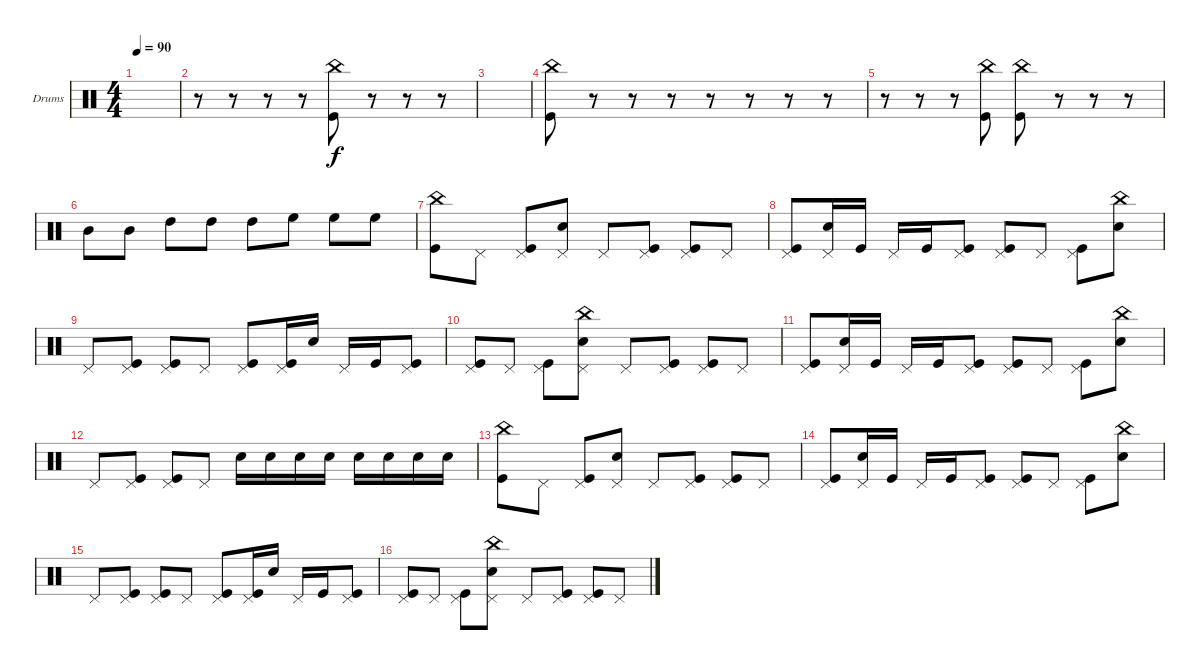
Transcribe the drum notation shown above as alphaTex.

\defaultSystemsLayout 4
\bracketExtendMode groupsimilarinstruments
\firstSystemTrackNameOrientation horizontal
\otherSystemsTrackNameOrientation horizontal
\track ("Drumkit" "Drums") {instrument percussion}
\staff {score}
\articulation defaults
\ts (4 4)
\tempo 90
\clef neutral
\ks c
|
r.8 r.8 r.8 r.8 ("Kick (hit)" "China (hit)").8 r.8 r.8 r.8 |
|
("Kick (hit)" "China (hit)").8 r.8 r.8 r.8 r.8 r.8 r.8 r.8 |
r.8 r.8 r.8 ("Kick (hit)" "China (hit)").8 ("China (hit)" "Kick (hit)").8 r.8 r.8 r.8 |
"Mid Tom (hit)".8 "Mid Tom (hit)".8 "High Tom (hit)".8 "High Tom (hit)".8 "High Tom (hit)".8 "High Floor Tom (hit)".8 "High Floor Tom (hit)".8 "High Floor Tom (hit)".8 |
("Kick (hit)" "China (hit)").8 "Pedal Hi-Hat (hit)".8 ("Pedal Hi-Hat (hit)" "Kick (hit)").8 ("Pedal Hi-Hat (hit)" "Snare (hit) 2").8 "Pedal Hi-Hat (hit)".8 ("Pedal Hi-Hat (hit)" "Kick (hit)").8 ("Pedal Hi-Hat (hit)" "Kick (hit)").8 "Pedal Hi-Hat (hit)".8 |
("Pedal Hi-Hat (hit)" "Kick (hit)").8 ("Pedal Hi-Hat (hit)" "Snare (hit) 2").16 "Kick (hit)".16 "Pedal Hi-Hat (hit)".16 "Kick (hit)".16 ("Pedal Hi-Hat (hit)" "Kick (hit)").8 ("Pedal Hi-Hat (hit)" "Kick (hit)").8 "Pedal Hi-Hat (hit)".8 ("Pedal Hi-Hat (hit)" "Kick (hit)").8 ("Snare (hit) 2" "China (hit)").8 |
"Pedal Hi-Hat (hit)".8 ("Pedal Hi-Hat (hit)" "Kick (hit)").8 ("Kick (hit)" "Pedal Hi-Hat (hit)").8 "Pedal Hi-Hat (hit)".8 ("Pedal Hi-Hat (hit)" "Kick (hit)").8 ("Kick (hit)" "Pedal Hi-Hat (hit)").16 "Snare (hit) 2".16 "Pedal Hi-Hat (hit)".16 "Kick (hit)".16 ("Pedal Hi-Hat (hit)" "Kick (hit)").8 |
("Kick (hit)" "Pedal Hi-Hat (hit)").8 "Pedal Hi-Hat (hit)".8 ("Pedal Hi-Hat (hit)" "Kick (hit)").8 ("Pedal Hi-Hat (hit)" "Snare (hit) 2" "China (hit)").8 "Pedal Hi-Hat (hit)".8 ("Pedal Hi-Hat (hit)" "Kick (hit)").8 ("Pedal Hi-Hat (hit)" "Kick (hit)").8 "Pedal Hi-Hat (hit)".8 |
("Pedal Hi-Hat (hit)" "Kick (hit)").8 ("Pedal Hi-Hat (hit)" "Snare (hit) 2").16 "Kick (hit)".16 "Pedal Hi-Hat (hit)".16 "Kick (hit)".16 ("Pedal Hi-Hat (hit)" "Kick (hit)").8 ("Pedal Hi-Hat (hit)" "Kick (hit)").8 "Pedal Hi-Hat (hit)".8 ("Pedal Hi-Hat (hit)" "Kick (hit)").8 ("Snare (hit) 2" "China (hit)").8 |
"Pedal Hi-Hat (hit)".8 ("Pedal Hi-Hat (hit)" "Kick (hit)").8 ("Kick (hit)" "Pedal Hi-Hat (hit)").8 "Pedal Hi-Hat (hit)".8 "Snare (hit) 2".16 "Snare (hit) 2".16 "Snare (hit) 2".16 "Snare (hit) 2".16 "Snare (hit) 2".16 "Snare (hit) 2".16 "Snare (hit) 2".16 "Snare (hit) 2".16 |
("Kick (hit)" "China (hit)").8 "Pedal Hi-Hat (hit)".8 ("Pedal Hi-Hat (hit)" "Kick (hit)").8 ("Pedal Hi-Hat (hit)" "Snare (hit) 2").8 "Pedal Hi-Hat (hit)".8 ("Pedal Hi-Hat (hit)" "Kick (hit)").8 ("Pedal Hi-Hat (hit)" "Kick (hit)").8 "Pedal Hi-Hat (hit)".8 |
("Pedal Hi-Hat (hit)" "Kick (hit)").8 ("Pedal Hi-Hat (hit)" "Snare (hit) 2").16 "Kick (hit)".16 "Pedal Hi-Hat (hit)".16 "Kick (hit)".16 ("Pedal Hi-Hat (hit)" "Kick (hit)").8 ("Pedal Hi-Hat (hit)" "Kick (hit)").8 "Pedal Hi-Hat (hit)".8 ("Pedal Hi-Hat (hit)" "Kick (hit)").8 ("Snare (hit) 2" "China (hit)").8 |
"Pedal Hi-Hat (hit)".8 ("Pedal Hi-Hat (hit)" "Kick (hit)").8 ("Kick (hit)" "Pedal Hi-Hat (hit)").8 "Pedal Hi-Hat (hit)".8 ("Pedal Hi-Hat (hit)" "Kick (hit)").8 ("Kick (hit)" "Pedal Hi-Hat (hit)").16 "Snare (hit) 2".16 "Pedal Hi-Hat (hit)".16 "Kick (hit)".16 ("Pedal Hi-Hat (hit)" "Kick (hit)").8 |
("Kick (hit)" "Pedal Hi-Hat (hit)").8 "Pedal Hi-Hat (hit)".8 ("Pedal Hi-Hat (hit)" "Kick (hit)").8 ("Pedal Hi-Hat (hit)" "Snare (hit) 2" "China (hit)").8 "Pedal Hi-Hat (hit)".8 ("Pedal Hi-Hat (hit)" "Kick (hit)").8 ("Pedal Hi-Hat (hit)" "Kick (hit)").8 "Pedal Hi-Hat (hit)".8
